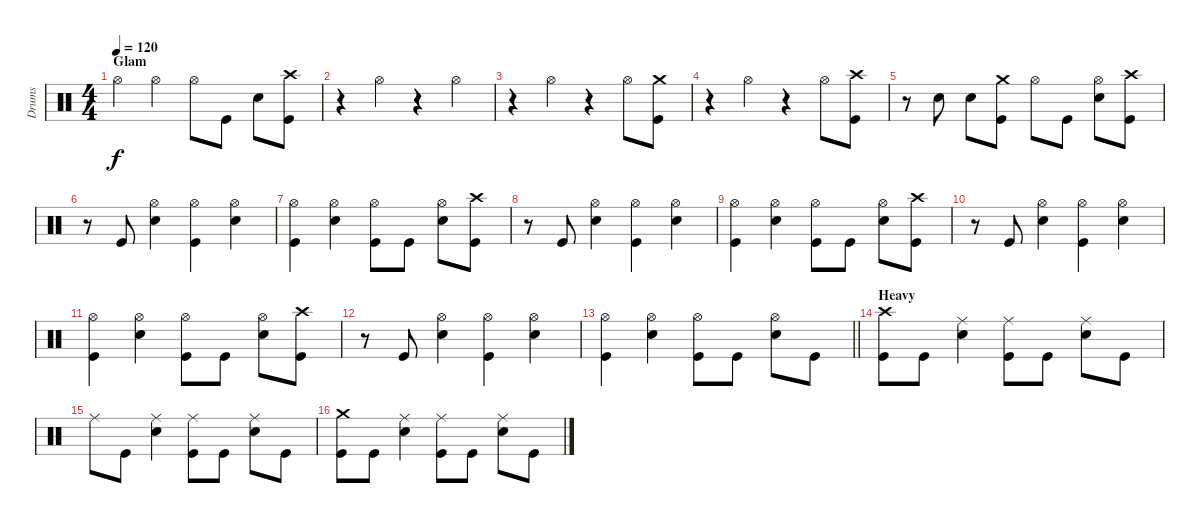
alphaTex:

\track ("Drums" "Drums") {instrument percussion}
\staff {score}
\articulation defaults
\ts (4 4)
\section ("" "Glam")
\tempo 120
\clef neutral
\ks c "Hi-Hat (open)".4{dy f} "Hi-Hat (open)".4 "Hi-Hat (open)".8 "Kick (hit)".8 "Electric Snare (hit)".8
("Crash high (hit)" "Kick (hit)").8 |
r.4 "Hi-Hat (open)".4 r.4 "Hi-Hat (open)".4 |
r.4 "Hi-Hat (open)".4 r.4 "Hi-Hat (open)".8 ("Crash medium (hit)" "Kick (hit)").8 |
r.4 "Hi-Hat (open)".4 r.4 "Hi-Hat (open)".8 ("Crash high (hit)" "Kick (hit)").8 |
r.8 "Electric Snare (hit)".8 "Electric Snare (hit)".8 ("Crash medium (hit)" "Kick (hit)").8 "Hi-Hat (open)".8 "Kick (hit)".8 ("Hi-Hat (open)" "Electric Snare (hit)").8 ("Crash high (hit)" "Kick (hit)").8 |
r.8 "Kick (hit)".8 ("Hi-Hat (open)" "Electric Snare (hit)").4 ("Hi-Hat (open)" "Kick (hit)").4 ("Hi-Hat (open)" "Electric Snare (hit)").4 |
("Hi-Hat (open)" "Kick (hit)").4 ("Hi-Hat (open)" "Electric Snare (hit)").4 ("Hi-Hat (open)" "Kick (hit)").8 "Kick (hit)".8 ("Hi-Hat (open)" "Electric Snare (hit)").8 ("Crash high (hit)" "Kick (hit)").8 |
r.8 "Kick (hit)".8 ("Hi-Hat (open)" "Electric Snare (hit)").4 ("Hi-Hat (open)" "Kick (hit)").4 ("Hi-Hat (open)" "Electric Snare (hit)").4 |
("Hi-Hat (open)" "Kick (hit)").4 ("Hi-Hat (open)" "Electric Snare (hit)").4 ("Hi-Hat (open)" "Kick (hit)").8 "Kick (hit)".8 ("Hi-Hat (open)" "Electric Snare (hit)").8 ("Crash high (hit)" "Kick (hit)").8 |
r.8 "Kick (hit)".8 ("Hi-Hat (open)" "Electric Snare (hit)").4 ("Hi-Hat (open)" "Kick (hit)").4 ("Hi-Hat (open)" "Electric Snare (hit)").4 |
("Hi-Hat (open)" "Kick (hit)").4 ("Hi-Hat (open)" "Electric Snare (hit)").4 ("Hi-Hat (open)" "Kick (hit)").8 "Kick (hit)".8 ("Hi-Hat (open)" "Electric Snare (hit)").8 ("Crash high (hit)" "Kick (hit)").8 |
r.8 "Kick (hit)".8 ("Hi-Hat (open)" "Electric Snare (hit)").4 ("Hi-Hat (open)" "Kick (hit)").4 ("Hi-Hat (open)" "Electric Snare (hit)").4 |
\barLineRight lightlight
("Hi-Hat (open)" "Kick (hit)").4 ("Hi-Hat (open)" "Electric Snare (hit)").4 ("Hi-Hat (open)" "Kick (hit)").8 "Kick (hit)".8 ("Hi-Hat (open)" "Electric Snare (hit)").8 "Kick (hit)".8 |
\section ("" "Heavy")
("Crash high (hit)" "Kick (hit)").8 "Kick (hit)".8 ("Ride (middle)" "Electric Snare (hit)").4 ("Ride (middle)" "Kick (hit)").8 "Kick (hit)".8 ("Ride (middle)" "Electric Snare (hit)").8 "Kick (hit)".8 |
"Ride (middle)".8 "Kick (hit)".8 ("Ride (middle)" "Electric Snare (hit)").4 ("Ride (middle)" "Kick (hit)").8 "Kick (hit)".8 ("Ride (middle)" "Electric Snare (hit)").8 "Kick (hit)".8 |
("Crash medium (hit)" "Kick (hit)").8 "Kick (hit)".8 ("Ride (middle)" "Electric Snare (hit)").4 ("Ride (middle)" "Kick (hit)").8 "Kick (hit)".8 ("Ride (middle)" "Electric Snare (hit)").8 "Kick (hit)".8
